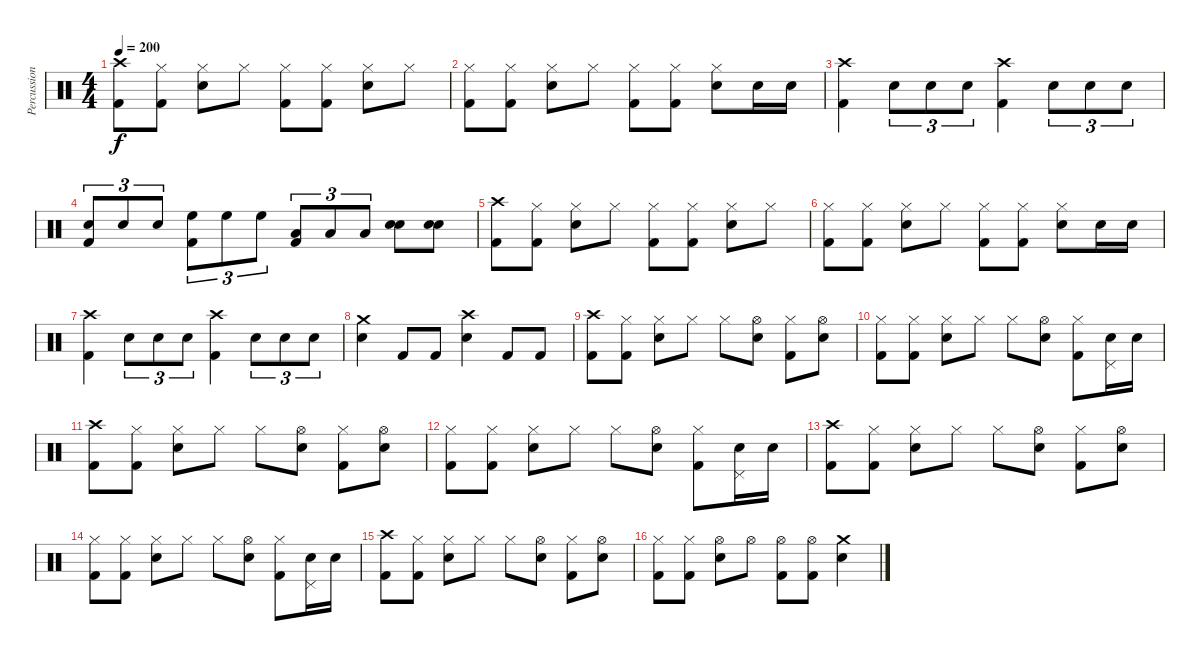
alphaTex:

\track ("Percussion" "Percussion") {instrument percussion}
\staff {score}
\articulation defaults
\ts (4 4)
\tempo 200
\clef neutral
\ks c
("Crash high (hit)" "Kick (hit) 2").8{dy f} ("Hi-Hat (closed)" "Kick (hit) 2").8 ("Hi-Hat (closed)" "Snare (hit) 2").8 "Hi-Hat (closed)".8 ("Hi-Hat (closed)" "Kick (hit) 2").8 ("Hi-Hat (closed)" "Kick (hit) 2").8 ("Hi-Hat (closed)" "Snare (hit) 2").8 "Hi-Hat (closed)".8 |
("Hi-Hat (closed)" "Kick (hit) 2").8 ("Hi-Hat (closed)" "Kick (hit) 2").8 ("Hi-Hat (closed)" "Snare (hit) 2").8 "Hi-Hat (closed)".8 ("Hi-Hat (closed)" "Kick (hit) 2").8 ("Hi-Hat (closed)" "Kick (hit) 2").8 ("Hi-Hat (closed)" "Snare (hit) 2").8 "Snare (hit) 2".16 "Snare (hit) 2".16 |
("Crash high (hit)" "Kick (hit) 2").4 "Snare (hit) 2".8{tu (3 2)} "Snare (hit) 2".8{tu (3 2)} "Snare (hit) 2".8{tu (3 2)} ("Crash high (hit)" "Kick (hit) 2").4 "Snare (hit) 2".8{tu (3 2)} "Snare (hit) 2".8{tu (3 2)} "Snare (hit) 2".8{tu (3 2)} |
("Snare (hit) 2" "Kick (hit) 2").8{tu (3 2)} "Snare (hit) 2".8{tu (3 2)} "Snare (hit) 2".8{tu (3 2)} ("High Floor Tom (hit)" "Kick (hit) 2").8{tu (3 2)} "High Floor Tom (hit)".8{tu (3 2)} "High Floor Tom (hit)".8{tu (3 2)} ("Low Tom (hit)" "Kick (hit) 2").8{tu (3 2)} "Low Tom (hit)".8{tu (3 2)} "Low Tom (hit)".8{tu (3 2)} ("Snare (hit) 2" "Snare (hit) 2").8 ("Snare (hit) 2" "Snare (hit) 2").8 |
("Crash high (hit)" "Kick (hit) 2").8 ("Hi-Hat (closed)" "Kick (hit) 2").8 ("Hi-Hat (closed)" "Snare (hit) 2").8 "Hi-Hat (closed)".8 ("Hi-Hat (closed)" "Kick (hit) 2").8 ("Hi-Hat (closed)" "Kick (hit) 2").8 ("Hi-Hat (closed)" "Snare (hit) 2").8 "Hi-Hat (closed)".8 |
("Hi-Hat (closed)" "Kick (hit) 2").8 ("Hi-Hat (closed)" "Kick (hit) 2").8 ("Hi-Hat (closed)" "Snare (hit) 2").8 "Hi-Hat (closed)".8 ("Hi-Hat (closed)" "Kick (hit) 2").8 ("Hi-Hat (closed)" "Kick (hit) 2").8 ("Hi-Hat (closed)" "Snare (hit) 2").8 "Snare (hit) 2".16 "Snare (hit) 2".16 |
("Crash high (hit)" "Kick (hit) 2").4 "Snare (hit) 2".8{tu (3 2)} "Snare (hit) 2".8{tu (3 2)} "Snare (hit) 2".8{tu (3 2)} ("Crash high (hit)" "Kick (hit) 2").4 "Snare (hit) 2".8{tu (3 2)} "Snare (hit) 2".8{tu (3 2)} "Snare (hit) 2".8{tu (3 2)} |
("Crash medium (hit)" "Snare (hit) 2").4 "Kick (hit) 2".8 "Kick (hit) 2".8 ("Crash high (hit)" "Snare (hit) 2").4 "Kick (hit) 2".8 "Kick (hit) 2".8 |
("Crash high (hit)" "Kick (hit) 2").8 ("Hi-Hat (closed)" "Kick (hit) 2").8 ("Hi-Hat (closed)" "Snare (hit) 2").8 "Hi-Hat (closed)".8 "Hi-Hat (closed)".8 ("Hi-Hat (open)" "Snare (hit) 2").8 ("Hi-Hat (closed)" "Kick (hit) 2").8 ("Hi-Hat (open)" "Snare (hit) 2").8 |
("Hi-Hat (closed)" "Kick (hit) 2").8 ("Hi-Hat (closed)" "Kick (hit) 2").8 ("Hi-Hat (closed)" "Snare (hit) 2").8 "Hi-Hat (closed)".8 "Hi-Hat (closed)".8 ("Hi-Hat (open)" "Snare (hit) 2").8 ("Hi-Hat (closed)" "Kick (hit) 2").8 ("Pedal Hi-Hat (hit)" "Snare (hit) 2").16 "Snare (hit) 2".16 |
("Crash high (hit)" "Kick (hit) 2").8 ("Hi-Hat (closed)" "Kick (hit) 2").8 ("Hi-Hat (closed)" "Snare (hit) 2").8 "Hi-Hat (closed)".8 "Hi-Hat (closed)".8 ("Hi-Hat (open)" "Snare (hit) 2").8 ("Hi-Hat (closed)" "Kick (hit) 2").8 ("Hi-Hat (open)" "Snare (hit) 2").8 |
("Hi-Hat (closed)" "Kick (hit) 2").8 ("Hi-Hat (closed)" "Kick (hit) 2").8 ("Hi-Hat (closed)" "Snare (hit) 2").8 "Hi-Hat (closed)".8 "Hi-Hat (closed)".8 ("Hi-Hat (open)" "Snare (hit) 2").8 ("Hi-Hat (closed)" "Kick (hit) 2").8 ("Pedal Hi-Hat (hit)" "Snare (hit) 2").16 "Snare (hit) 2".16 |
("Crash high (hit)" "Kick (hit) 2").8 ("Hi-Hat (closed)" "Kick (hit) 2").8 ("Hi-Hat (closed)" "Snare (hit) 2").8 "Hi-Hat (closed)".8 "Hi-Hat (closed)".8 ("Hi-Hat (open)" "Snare (hit) 2").8 ("Hi-Hat (closed)" "Kick (hit) 2").8 ("Hi-Hat (open)" "Snare (hit) 2").8 |
("Hi-Hat (closed)" "Kick (hit) 2").8 ("Hi-Hat (closed)" "Kick (hit) 2").8 ("Hi-Hat (closed)" "Snare (hit) 2").8 "Hi-Hat (closed)".8 "Hi-Hat (closed)".8 ("Hi-Hat (open)" "Snare (hit) 2").8 ("Hi-Hat (closed)" "Kick (hit) 2").8 ("Pedal Hi-Hat (hit)" "Snare (hit) 2").16 "Snare (hit) 2".16 |
("Crash high (hit)" "Kick (hit) 2").8 ("Hi-Hat (closed)" "Kick (hit) 2").8 ("Hi-Hat (closed)" "Snare (hit) 2").8 "Hi-Hat (closed)".8 "Hi-Hat (closed)".8 ("Hi-Hat (open)" "Snare (hit) 2").8 ("Hi-Hat (closed)" "Kick (hit) 2").8 ("Hi-Hat (open)" "Snare (hit) 2").8 |
("Hi-Hat (closed)" "Kick (hit) 2").8 ("Hi-Hat (closed)" "Kick (hit) 2").8 ("Hi-Hat (open)" "Snare (hit) 2").8 "Hi-Hat (open)".8 ("Hi-Hat (open)" "Kick (hit) 2").8 ("Hi-Hat (open)" "Kick (hit) 2").8 ("Crash medium (hit)" "Snare (hit) 2").4
